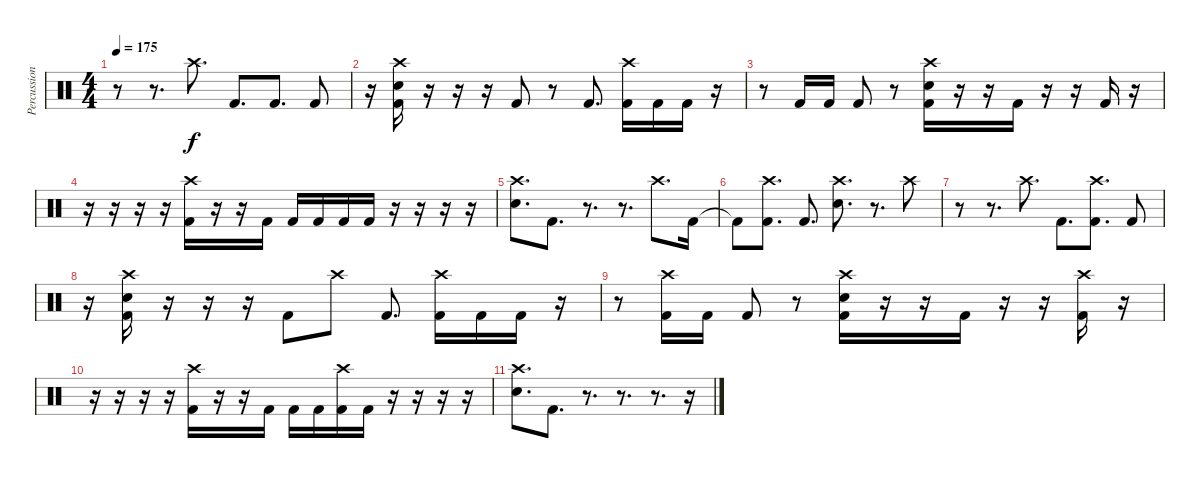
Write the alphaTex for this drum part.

\track ("Percussion" "Percussion") {instrument percussion}
\staff {score}
\articulation defaults
\ts (4 4)
\tempo 175
\clef neutral
\ks c
r.8{dy f} r.8{d} "Crash high (hit)".8{d} "Kick (hit) 2".8{d} "Kick (hit) 2".8{d} "Kick (hit) 2".8 |
r.16 ("Crash high (hit)" "Snare (hit) 2" "Kick (hit) 2").16 r.16 r.16 r.16 "Kick (hit) 2".8 r.8 "Kick (hit) 2".8{d} ("Crash high (hit)" "Kick (hit) 2").16 "Kick (hit) 2".16 "Kick (hit) 2".16 r.16 |
r.8 "Kick (hit) 2".16 "Kick (hit) 2".16 "Kick (hit) 2".8 r.8 ("Crash high (hit)" "Snare (hit) 2" "Kick (hit) 2").16 r.16 r.16 "Kick (hit) 2".16 r.16 r.16 "Kick (hit) 2".16 r.16 |
r.16 r.16 r.16 r.16 ("Crash high (hit)" "Kick (hit) 2").16 r.16 r.16 "Kick (hit) 2".16 "Kick (hit) 2".16 "Kick (hit) 2".16 "Kick (hit) 2".16 "Kick (hit) 2".16 r.16 r.16 r.16 r.16 |
("Crash high (hit)" "Snare (hit) 2").8{d} "Kick (hit) 2".8{d} r.8{d} r.8{d} "Crash high (hit)".8{d} "Kick (hit) 2".16 |
"Kick (hit) 2"{t}.8 ("Crash high (hit)" "Kick (hit) 2").8{d} "Kick (hit) 2".8{d} ("Crash high (hit)" "Snare (hit) 2").8{d} r.8{d} "Crash high (hit)".8 |
r.8 r.8{d} "Crash high (hit)".8{d} "Kick (hit) 2".8{d} ("Crash high (hit)" "Kick (hit) 2").8{d} "Kick (hit) 2".8 |
r.16 ("Crash high (hit)" "Snare (hit) 2" "Kick (hit) 2").16 r.16 r.16 r.16 "Kick (hit) 2".8 "Crash high (hit)".8 "Kick (hit) 2".8{d} ("Crash high (hit)" "Kick (hit) 2").16 "Kick (hit) 2".16 "Kick (hit) 2".16 r.16 |
r.8 ("Crash high (hit)" "Kick (hit) 2").16 "Kick (hit) 2".16 "Kick (hit) 2".8 r.8 ("Crash high (hit)" "Snare (hit) 2" "Kick (hit) 2").16 r.16 r.16 "Kick (hit) 2".16 r.16 r.16 ("Crash high (hit)" "Kick (hit) 2").16 r.16 |
r.16 r.16 r.16 r.16 ("Crash high (hit)" "Kick (hit) 2").16 r.16 r.16 "Kick (hit) 2".16 "Kick (hit) 2".16 "Kick (hit) 2".16 ("Crash high (hit)" "Kick (hit) 2").16 "Kick (hit) 2".16 r.16 r.16 r.16 r.16 |
("Crash high (hit)" "Snare (hit) 2").8{d} "Kick (hit) 2".8{d} r.8{d} r.8{d} r.8{d} r.16
